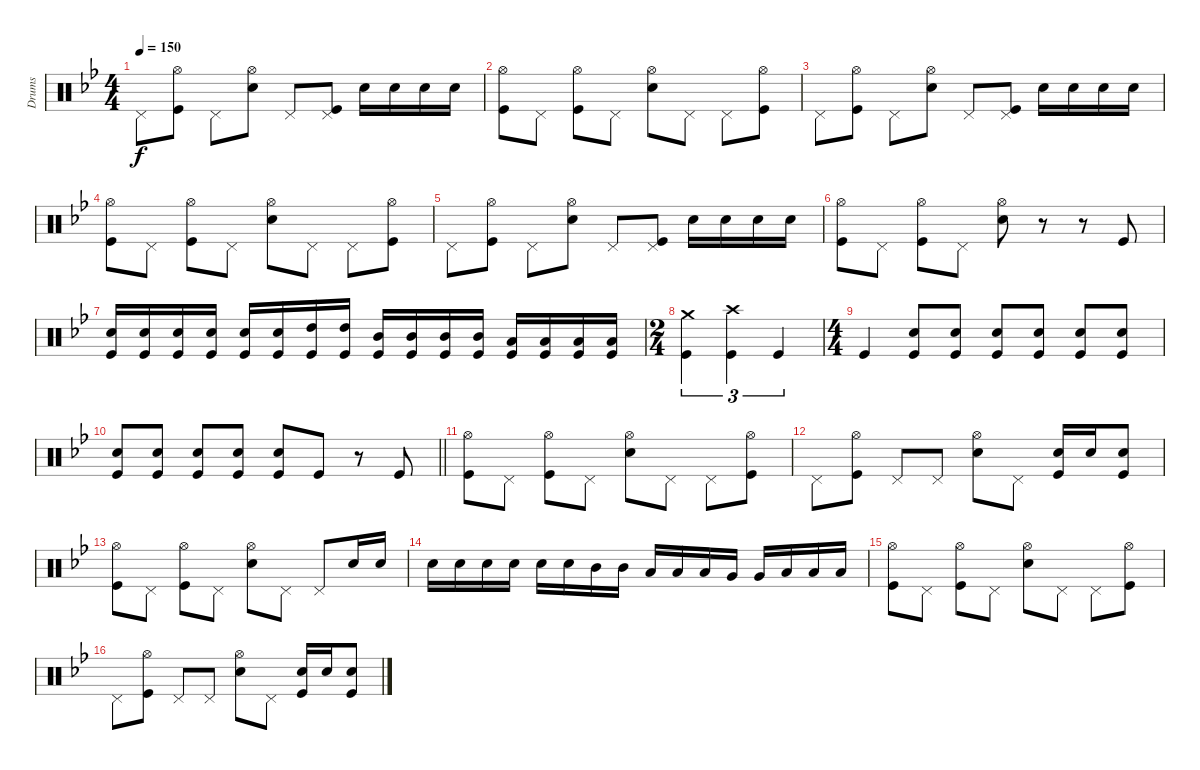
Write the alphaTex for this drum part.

\track ("Drums" "Drums") {instrument percussion}
\staff {score}
\articulation defaults
\ts (4 4)
\tempo 150
\clef neutral
\ks bb "Pedal Hi-Hat (hit)".8{dy f}
("Hi-Hat (open)" "Kick (hit)").8 "Pedal Hi-Hat (hit)".8 ("Hi-Hat (open)" "Electric Snare (hit)").8 "Pedal Hi-Hat (hit)".8 ("Pedal Hi-Hat (hit)" "Kick (hit)").8 "Electric Snare (hit)".16 "Electric Snare (hit)".16 "Electric Snare (hit)".16 "Electric Snare (hit)".16 |
("Hi-Hat (open)" "Kick (hit)").8 "Pedal Hi-Hat (hit)".8 ("Hi-Hat (open)" "Kick (hit)").8 "Pedal Hi-Hat (hit)".8 ("Hi-Hat (open)" "Electric Snare (hit)").8 "Pedal Hi-Hat (hit)".8 "Pedal Hi-Hat (hit)".8 ("Hi-Hat (open)" "Kick (hit)").8 |
"Pedal Hi-Hat (hit)".8 ("Hi-Hat (open)" "Kick (hit)").8 "Pedal Hi-Hat (hit)".8 ("Hi-Hat (open)" "Electric Snare (hit)").8 "Pedal Hi-Hat (hit)".8 ("Pedal Hi-Hat (hit)" "Kick (hit)").8 "Electric Snare (hit)".16 "Electric Snare (hit)".16 "Electric Snare (hit)".16 "Electric Snare (hit)".16 |
("Hi-Hat (open)" "Kick (hit)").8 "Pedal Hi-Hat (hit)".8 ("Hi-Hat (open)" "Kick (hit)").8 "Pedal Hi-Hat (hit)".8 ("Hi-Hat (open)" "Electric Snare (hit)").8 "Pedal Hi-Hat (hit)".8 "Pedal Hi-Hat (hit)".8 ("Hi-Hat (open)" "Kick (hit)").8 |
"Pedal Hi-Hat (hit)".8 ("Hi-Hat (open)" "Kick (hit)").8 "Pedal Hi-Hat (hit)".8 ("Hi-Hat (open)" "Electric Snare (hit)").8 "Pedal Hi-Hat (hit)".8 ("Pedal Hi-Hat (hit)" "Kick (hit)").8 "Electric Snare (hit)".16 "Electric Snare (hit)".16 "Electric Snare (hit)".16 "Electric Snare (hit)".16 |
("Hi-Hat (open)" "Kick (hit)").8 "Pedal Hi-Hat (hit)".8 ("Hi-Hat (open)" "Kick (hit)").8 "Pedal Hi-Hat (hit)".8 ("Hi-Hat (open)" "Electric Snare (hit)").8 r.8 r.8 "Kick (hit)".8 |
("Electric Snare (hit)" "Kick (hit)").16 ("Electric Snare (hit)" "Kick (hit)").16 ("Electric Snare (hit)" "Kick (hit)").16 ("Electric Snare (hit)" "Kick (hit)").16 ("Electric Snare (hit)" "Kick (hit)").16 ("Electric Snare (hit)" "Kick (hit)").16 ("High Tom (hit)" "Kick (hit)").16 ("High Tom (hit)" "Kick (hit)").16 ("Mid Tom (hit)" "Kick (hit)").16 ("Mid Tom (hit)" "Kick (hit)").16 ("Mid Tom (hit)" "Kick (hit)").16 ("Mid Tom (hit)" "Kick (hit)").16 ("Low Tom (hit)" "Kick (hit)").16 ("Low Tom (hit)" "Kick (hit)").16 ("Low Tom (hit)" "Kick (hit)").16 ("Low Tom (hit)" "Kick (hit)").16 |
\ts (2 4)
("Crash medium (hit)" "Kick (hit)").4{tu (3 2)} ("Crash high (hit)" "Kick (hit)").4{tu (3 2)} "Kick (hit)".4{tu (3 2)} |
\ts (4 4)
"Kick (hit)".4 ("Electric Snare (hit)" "Kick (hit)").8 ("Electric Snare (hit)" "Kick (hit)").8 ("Electric Snare (hit)" "Kick (hit)").8 ("Electric Snare (hit)" "Kick (hit)").8 ("Electric Snare (hit)" "Kick (hit)").8 ("Electric Snare (hit)" "Kick (hit)").8 |
\barLineRight lightlight
("Electric Snare (hit)" "Kick (hit)").8 ("Electric Snare (hit)" "Kick (hit)").8 ("Electric Snare (hit)" "Kick (hit)").8 ("Electric Snare (hit)" "Kick (hit)").8 ("Electric Snare (hit)" "Kick (hit)").8 "Kick (hit)".8 r.8 "Kick (hit)".8 |
("Hi-Hat (open)" "Kick (hit)").8 "Pedal Hi-Hat (hit)".8 ("Hi-Hat (open)" "Kick (hit)").8 "Pedal Hi-Hat (hit)".8 ("Hi-Hat (open)" "Electric Snare (hit)").8 "Pedal Hi-Hat (hit)".8 "Pedal Hi-Hat (hit)".8 ("Hi-Hat (open)" "Kick (hit)").8 |
"Pedal Hi-Hat (hit)".8 ("Hi-Hat (open)" "Kick (hit)").8 "Pedal Hi-Hat (hit)".8 "Pedal Hi-Hat (hit)".8 ("Hi-Hat (open)" "Electric Snare (hit)").8 "Pedal Hi-Hat (hit)".8 ("Electric Snare (hit)" "Kick (hit)").16 "Electric Snare (hit)".16 ("Electric Snare (hit)" "Kick (hit)").8 |
("Hi-Hat (open)" "Kick (hit)").8 "Pedal Hi-Hat (hit)".8 ("Hi-Hat (open)" "Kick (hit)").8 "Pedal Hi-Hat (hit)".8 ("Hi-Hat (open)" "Electric Snare (hit)").8 "Pedal Hi-Hat (hit)".8 "Pedal Hi-Hat (hit)".8 "Electric Snare (hit)".16 "Electric Snare (hit)".16 |
"Electric Snare (hit)".16 "Electric Snare (hit)".16 "Electric Snare (hit)".16 "Electric Snare (hit)".16 "Electric Snare (hit)".16 "Electric Snare (hit)".16 "Mid Tom (hit)".16 "Mid Tom (hit)".16 "Low Tom (hit)".16 "Low Tom (hit)".16 "Low Tom (hit)".16 "Very Low Tom (hit)".16 "Very Low Tom (hit)".16 "Low Floor Tom (hit)".16 "Low Floor Tom (hit)".16 "Low Floor Tom (hit)".16 |
("Hi-Hat (open)" "Kick (hit)").8 "Pedal Hi-Hat (hit)".8 ("Hi-Hat (open)" "Kick (hit)").8 "Pedal Hi-Hat (hit)".8 ("Hi-Hat (open)" "Electric Snare (hit)").8 "Pedal Hi-Hat (hit)".8 "Pedal Hi-Hat (hit)".8 ("Hi-Hat (open)" "Kick (hit)").8 |
"Pedal Hi-Hat (hit)".8 ("Hi-Hat (open)" "Kick (hit)").8 "Pedal Hi-Hat (hit)".8 "Pedal Hi-Hat (hit)".8 ("Hi-Hat (open)" "Electric Snare (hit)").8 "Pedal Hi-Hat (hit)".8 ("Electric Snare (hit)" "Kick (hit)").16 "Electric Snare (hit)".16 ("Electric Snare (hit)" "Kick (hit)").8
